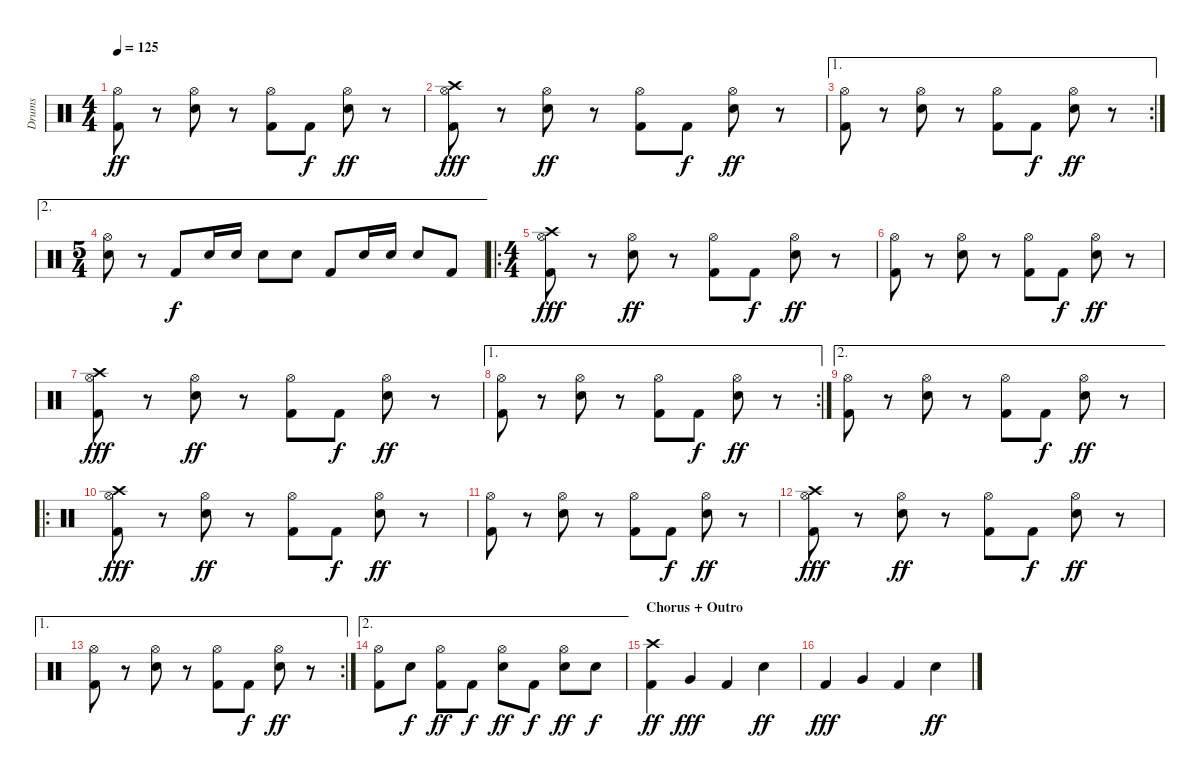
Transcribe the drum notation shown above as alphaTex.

\track ("Drums" "Drums") {instrument percussion}
\staff {score}
\articulation defaults
\ts (4 4)
\tempo 125
\clef neutral
\ks c
("Hi-Hat (open)" "Kick (hit) 2").8{dy ff} r.8 ("Hi-Hat (open)" "Snare (hit) 2").8 r.8 ("Hi-Hat (open)" "Kick (hit) 2").8 "Kick (hit) 2".8{dy f} ("Hi-Hat (open)" "Snare (hit) 2").8{dy ff} r.8 |
("Hi-Hat (open)" "Kick (hit) 2" "Crash high (hit)").8{dy fff} r.8 ("Hi-Hat (open)" "Snare (hit) 2").8{dy ff} r.8 ("Hi-Hat (open)" "Kick (hit) 2").8 "Kick (hit) 2".8{dy f} ("Hi-Hat (open)" "Snare (hit) 2").8{dy ff} r.8 |
\ae 1
\rc 2
("Hi-Hat (open)" "Kick (hit) 2").8 r.8 ("Hi-Hat (open)" "Snare (hit) 2").8 r.8 ("Hi-Hat (open)" "Kick (hit) 2").8 "Kick (hit) 2".8{dy f} ("Hi-Hat (open)" "Snare (hit) 2").8{dy ff} r.8 |
\ae 2
\ts (5 4)
("Hi-Hat (open)" "Snare (hit) 2").8 r.8 "Kick (hit) 2".8{dy f} "Snare (hit) 2".16 "Snare (hit) 2".16 "Snare (hit) 2".8 "Snare (hit) 2".8 "Kick (hit) 2".8 "Snare (hit) 2".16 "Snare (hit) 2".16 "Snare (hit) 2".8 "Kick (hit) 2".8 |
\ro
\ts (4 4)
("Hi-Hat (open)" "Kick (hit) 2" "Crash high (hit)").8{dy fff} r.8 ("Hi-Hat (open)" "Snare (hit) 2").8{dy ff} r.8 ("Hi-Hat (open)" "Kick (hit) 2").8 "Kick (hit) 2".8{dy f} ("Hi-Hat (open)" "Snare (hit) 2").8{dy ff} r.8 |
("Hi-Hat (open)" "Kick (hit) 2").8 r.8 ("Hi-Hat (open)" "Snare (hit) 2").8 r.8 ("Hi-Hat (open)" "Kick (hit) 2").8 "Kick (hit) 2".8{dy f} ("Hi-Hat (open)" "Snare (hit) 2").8{dy ff} r.8 |
("Hi-Hat (open)" "Kick (hit) 2" "Crash high (hit)").8{dy fff} r.8 ("Hi-Hat (open)" "Snare (hit) 2").8{dy ff} r.8 ("Hi-Hat (open)" "Kick (hit) 2").8 "Kick (hit) 2".8{dy f} ("Hi-Hat (open)" "Snare (hit) 2").8{dy ff} r.8 |
\ae 1
\rc 2
("Hi-Hat (open)" "Kick (hit) 2").8 r.8 ("Hi-Hat (open)" "Snare (hit) 2").8 r.8 ("Hi-Hat (open)" "Kick (hit) 2").8 "Kick (hit) 2".8{dy f} ("Hi-Hat (open)" "Snare (hit) 2").8{dy ff} r.8 |
\ae 2
("Hi-Hat (open)" "Kick (hit) 2").8 r.8 ("Hi-Hat (open)" "Snare (hit) 2").8 r.8 ("Hi-Hat (open)" "Kick (hit) 2").8 "Kick (hit) 2".8{dy f} ("Hi-Hat (open)" "Snare (hit) 2").8{dy ff} r.8 |
\ro
("Hi-Hat (open)" "Kick (hit) 2" "Crash high (hit)").8{dy fff} r.8 ("Hi-Hat (open)" "Snare (hit) 2").8{dy ff} r.8 ("Hi-Hat (open)" "Kick (hit) 2").8 "Kick (hit) 2".8{dy f} ("Hi-Hat (open)" "Snare (hit) 2").8{dy ff} r.8 |
("Hi-Hat (open)" "Kick (hit) 2").8 r.8 ("Hi-Hat (open)" "Snare (hit) 2").8 r.8 ("Hi-Hat (open)" "Kick (hit) 2").8 "Kick (hit) 2".8{dy f} ("Hi-Hat (open)" "Snare (hit) 2").8{dy ff} r.8 |
("Hi-Hat (open)" "Kick (hit) 2" "Crash high (hit)").8{dy fff} r.8 ("Hi-Hat (open)" "Snare (hit) 2").8{dy ff} r.8 ("Hi-Hat (open)" "Kick (hit) 2").8 "Kick (hit) 2".8{dy f} ("Hi-Hat (open)" "Snare (hit) 2").8{dy ff} r.8 |
\ae 1
\rc 2
("Hi-Hat (open)" "Kick (hit) 2").8 r.8 ("Hi-Hat (open)" "Snare (hit) 2").8 r.8 ("Hi-Hat (open)" "Kick (hit) 2").8 "Kick (hit) 2".8{dy f} ("Hi-Hat (open)" "Snare (hit) 2").8{dy ff} r.8 |
\ae 2
("Hi-Hat (open)" "Kick (hit) 2").8 "Snare (hit) 2".8{dy f} ("Hi-Hat (open)" "Kick (hit) 2").8{dy ff} "Kick (hit) 2".8{dy f} ("Hi-Hat (open)" "Snare (hit) 2").8{dy ff} "Kick (hit) 2".8{dy f} ("Hi-Hat (open)" "Snare (hit) 2").8{dy ff} "Snare (hit) 2".8{dy f} |
\section ("" "Chorus + Outro")
("Kick (hit) 2" "Crash high (hit)").4{dy ff volume 8} "Very Low Tom (hit)".4{dy fff} "Kick (hit) 2".4 "Snare (hit) 2".4{dy ff} |
"Kick (hit) 2".4{dy fff} "Very Low Tom (hit)".4 "Kick (hit) 2".4 "Snare (hit) 2".4{dy ff}
